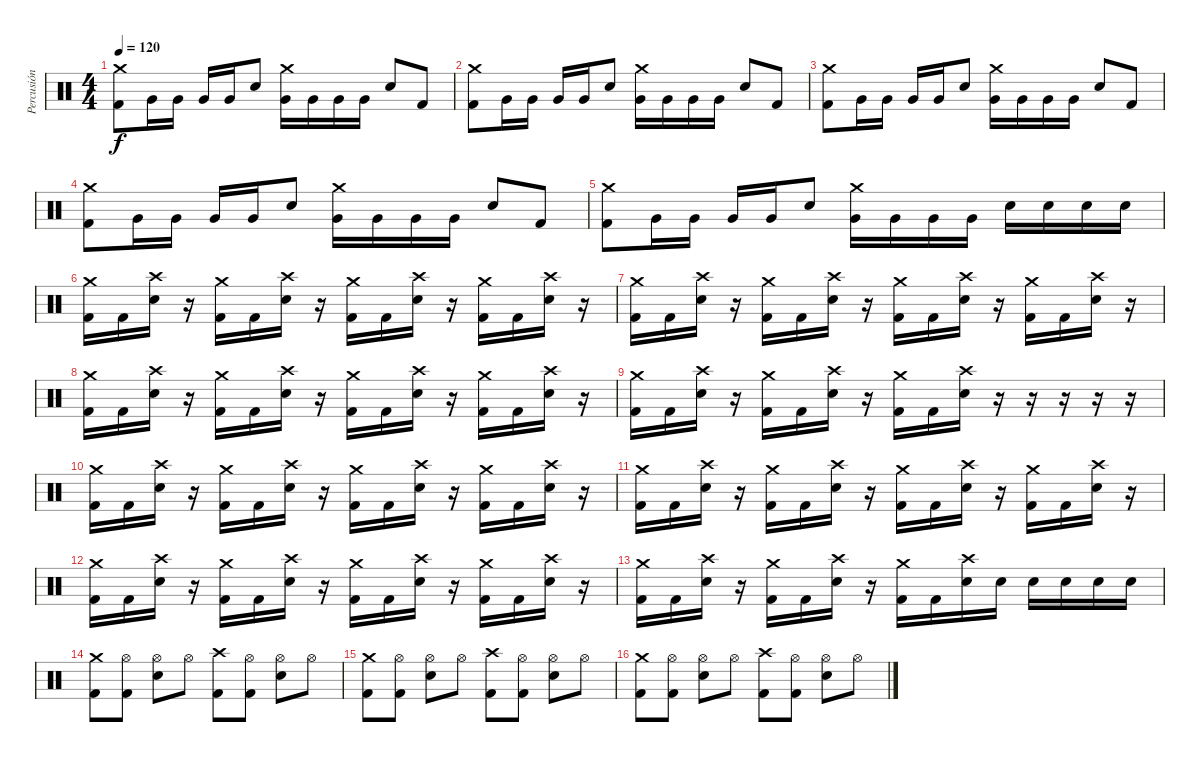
\track ("Percusión" "Percusión") {instrument percussion}
\staff {score}
\articulation defaults
\ts (4 4)
\tempo 120
\clef neutral
\ks c
("Crash medium (hit)" "Kick (hit) 2").8{dy f} "Very Low Tom (hit)".16 "Very Low Tom (hit)".16 "Very Low Tom (hit)".16 "Very Low Tom (hit)".16 "Snare (hit) 2".8 ("Crash medium (hit)" "Very Low Tom (hit)").16 "Very Low Tom (hit)".16 "Very Low Tom (hit)".16 "Very Low Tom (hit)".16 "Snare (hit) 2".8 "Kick (hit) 2".8 |
("Crash medium (hit)" "Kick (hit) 2").8 "Very Low Tom (hit)".16 "Very Low Tom (hit)".16 "Very Low Tom (hit)".16 "Very Low Tom (hit)".16 "Snare (hit) 2".8 ("Crash medium (hit)" "Very Low Tom (hit)").16 "Very Low Tom (hit)".16 "Very Low Tom (hit)".16 "Very Low Tom (hit)".16 "Snare (hit) 2".8 "Kick (hit) 2".8 |
("Crash medium (hit)" "Kick (hit) 2").8 "Very Low Tom (hit)".16 "Very Low Tom (hit)".16 "Very Low Tom (hit)".16 "Very Low Tom (hit)".16 "Snare (hit) 2".8 ("Crash medium (hit)" "Very Low Tom (hit)").16 "Very Low Tom (hit)".16 "Very Low Tom (hit)".16 "Very Low Tom (hit)".16 "Snare (hit) 2".8 "Kick (hit) 2".8 |
("Crash medium (hit)" "Kick (hit) 2").8 "Very Low Tom (hit)".16 "Very Low Tom (hit)".16 "Very Low Tom (hit)".16 "Very Low Tom (hit)".16 "Snare (hit) 2".8 ("Crash medium (hit)" "Very Low Tom (hit)").16 "Very Low Tom (hit)".16 "Very Low Tom (hit)".16 "Very Low Tom (hit)".16 "Snare (hit) 2".8 "Kick (hit) 2".8 |
("Crash medium (hit)" "Kick (hit) 2").8 "Very Low Tom (hit)".16 "Very Low Tom (hit)".16 "Very Low Tom (hit)".16 "Very Low Tom (hit)".16 "Snare (hit) 2".8 ("Crash medium (hit)" "Very Low Tom (hit)").16 "Very Low Tom (hit)".16 "Very Low Tom (hit)".16 "Very Low Tom (hit)".16 "Snare (hit) 2".16 "Snare (hit) 2".16 "Snare (hit) 2".16 "Snare (hit) 2".16 |
("Crash medium (hit)" "Kick (hit) 2").16 "Kick (hit) 2".16 ("Crash high (hit)" "Snare (hit) 2").16 r.16 ("Crash medium (hit)" "Kick (hit) 2").16 "Kick (hit) 2".16 ("Crash high (hit)" "Snare (hit) 2").16 r.16 ("Crash medium (hit)" "Kick (hit) 2").16 "Kick (hit) 2".16 ("Crash high (hit)" "Snare (hit) 2").16 r.16 ("Crash medium (hit)" "Kick (hit) 2").16 "Kick (hit) 2".16 ("Crash high (hit)" "Snare (hit) 2").16 r.16 |
("Crash medium (hit)" "Kick (hit) 2").16 "Kick (hit) 2".16 ("Crash high (hit)" "Snare (hit) 2").16 r.16 ("Crash medium (hit)" "Kick (hit) 2").16 "Kick (hit) 2".16 ("Crash high (hit)" "Snare (hit) 2").16 r.16 ("Crash medium (hit)" "Kick (hit) 2").16 "Kick (hit) 2".16 ("Crash high (hit)" "Snare (hit) 2").16 r.16 ("Crash medium (hit)" "Kick (hit) 2").16 "Kick (hit) 2".16 ("Crash high (hit)" "Snare (hit) 2").16 r.16 |
("Crash medium (hit)" "Kick (hit) 2").16 "Kick (hit) 2".16 ("Crash high (hit)" "Snare (hit) 2").16 r.16 ("Crash medium (hit)" "Kick (hit) 2").16 "Kick (hit) 2".16 ("Crash high (hit)" "Snare (hit) 2").16 r.16 ("Crash medium (hit)" "Kick (hit) 2").16 "Kick (hit) 2".16 ("Crash high (hit)" "Snare (hit) 2").16 r.16 ("Crash medium (hit)" "Kick (hit) 2").16 "Kick (hit) 2".16 ("Crash high (hit)" "Snare (hit) 2").16 r.16 |
("Crash medium (hit)" "Kick (hit) 2").16 "Kick (hit) 2".16 ("Crash high (hit)" "Snare (hit) 2").16 r.16 ("Crash medium (hit)" "Kick (hit) 2").16 "Kick (hit) 2".16 ("Crash high (hit)" "Snare (hit) 2").16 r.16 ("Crash medium (hit)" "Kick (hit) 2").16 "Kick (hit) 2".16 ("Crash high (hit)" "Snare (hit) 2").16 r.16 r.16 r.16 r.16 r.16 |
("Crash medium (hit)" "Kick (hit) 2").16 "Kick (hit) 2".16 ("Crash high (hit)" "Snare (hit) 2").16 r.16 ("Crash medium (hit)" "Kick (hit) 2").16 "Kick (hit) 2".16 ("Crash high (hit)" "Snare (hit) 2").16 r.16 ("Crash medium (hit)" "Kick (hit) 2").16 "Kick (hit) 2".16 ("Crash high (hit)" "Snare (hit) 2").16 r.16 ("Crash medium (hit)" "Kick (hit) 2").16 "Kick (hit) 2".16 ("Crash high (hit)" "Snare (hit) 2").16 r.16 |
("Crash medium (hit)" "Kick (hit) 2").16 "Kick (hit) 2".16 ("Crash high (hit)" "Snare (hit) 2").16 r.16 ("Crash medium (hit)" "Kick (hit) 2").16 "Kick (hit) 2".16 ("Crash high (hit)" "Snare (hit) 2").16 r.16 ("Crash medium (hit)" "Kick (hit) 2").16 "Kick (hit) 2".16 ("Crash high (hit)" "Snare (hit) 2").16 r.16 ("Crash medium (hit)" "Kick (hit) 2").16 "Kick (hit) 2".16 ("Crash high (hit)" "Snare (hit) 2").16 r.16 |
("Crash medium (hit)" "Kick (hit) 2").16 "Kick (hit) 2".16 ("Crash high (hit)" "Snare (hit) 2").16 r.16 ("Crash medium (hit)" "Kick (hit) 2").16 "Kick (hit) 2".16 ("Crash high (hit)" "Snare (hit) 2").16 r.16 ("Crash medium (hit)" "Kick (hit) 2").16 "Kick (hit) 2".16 ("Crash high (hit)" "Snare (hit) 2").16 r.16 ("Crash medium (hit)" "Kick (hit) 2").16 "Kick (hit) 2".16 ("Crash high (hit)" "Snare (hit) 2").16 r.16 |
("Crash medium (hit)" "Kick (hit) 2").16 "Kick (hit) 2".16 ("Crash high (hit)" "Snare (hit) 2").16 r.16 ("Crash medium (hit)" "Kick (hit) 2").16 "Kick (hit) 2".16 ("Crash high (hit)" "Snare (hit) 2").16 r.16 ("Crash medium (hit)" "Kick (hit) 2").16 "Kick (hit) 2".16 ("Crash high (hit)" "Snare (hit) 2").16 "Snare (hit) 2".16 "Snare (hit) 2".16 "Snare (hit) 2".16 "Snare (hit) 2".16 "Snare (hit) 2".16 |
("Crash medium (hit)" "Kick (hit) 2").8 ("Hi-Hat (open)" "Kick (hit) 2").8 ("Hi-Hat (open)" "Snare (hit) 2").8 "Hi-Hat (open)".8 ("Crash high (hit)" "Kick (hit) 2").8 ("Hi-Hat (open)" "Kick (hit) 2").8 ("Hi-Hat (open)" "Snare (hit) 2").8 "Hi-Hat (open)".8 |
("Crash medium (hit)" "Kick (hit) 2").8 ("Hi-Hat (open)" "Kick (hit) 2").8 ("Hi-Hat (open)" "Snare (hit) 2").8 "Hi-Hat (open)".8 ("Crash high (hit)" "Kick (hit) 2").8 ("Hi-Hat (open)" "Kick (hit) 2").8 ("Hi-Hat (open)" "Snare (hit) 2").8 "Hi-Hat (open)".8 |
("Crash medium (hit)" "Kick (hit) 2").8 ("Hi-Hat (open)" "Kick (hit) 2").8 ("Hi-Hat (open)" "Snare (hit) 2").8 "Hi-Hat (open)".8 ("Crash high (hit)" "Kick (hit) 2").8 ("Hi-Hat (open)" "Kick (hit) 2").8 ("Hi-Hat (open)" "Snare (hit) 2").8 "Hi-Hat (open)".8
